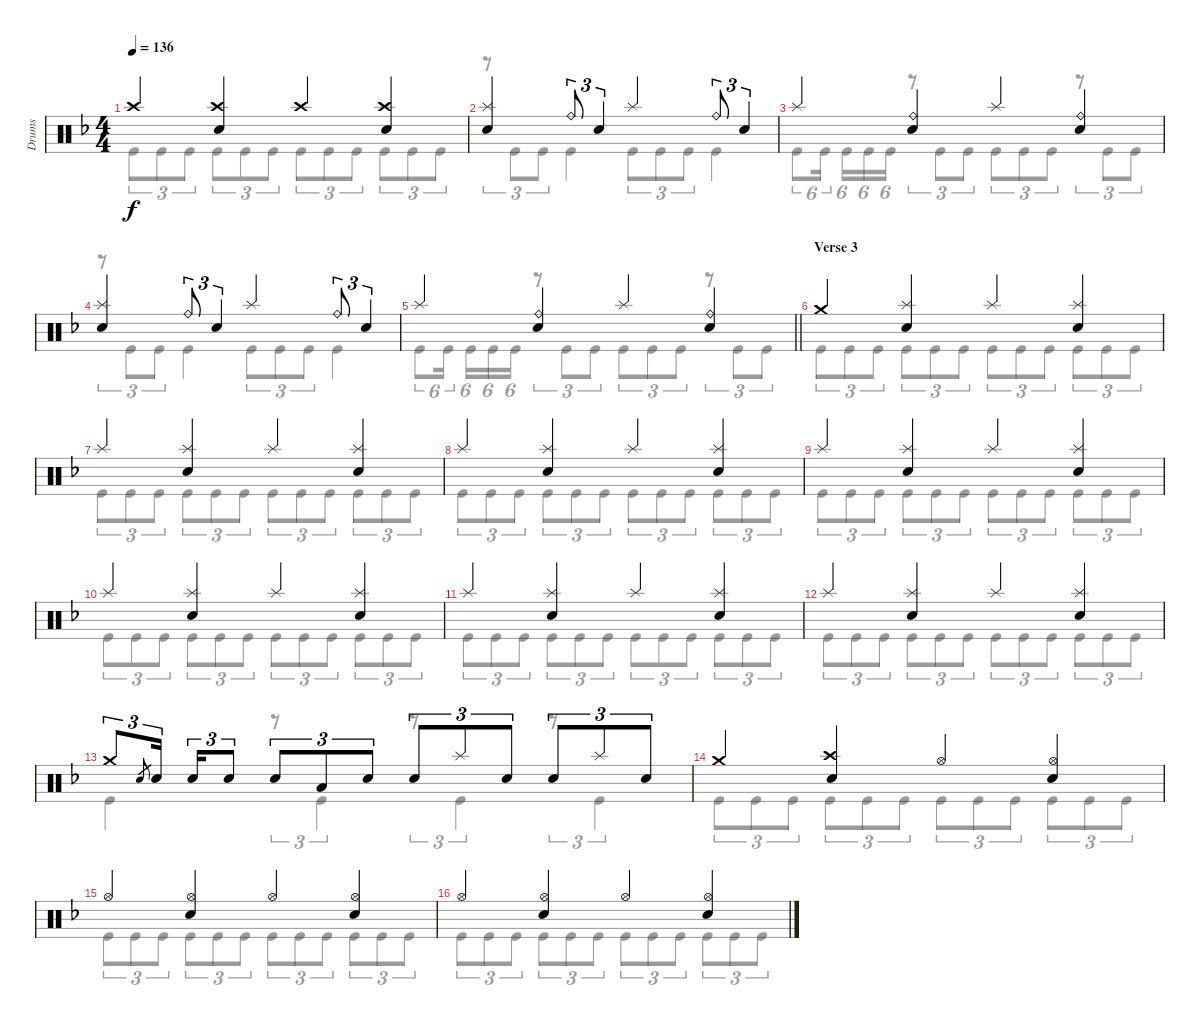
\track ("Drums" "Drums") {instrument percussion}
\staff {score}
\articulation defaults
\voice
\ts (4 4)
\tempo 136
\clef neutral
\ks dminor "Crash high (hit)".4{dy f}
("Crash high (hit)" "Electric Snare (hit)").4 "Crash high (hit)".4 ("Crash high (hit)" "Electric Snare (hit)").4 |
("Splash (hit)" "Electric Snare (hit)").4 "Ride (bell)".8{tu (3 2)} "Electric Snare (hit)".4{tu (3 2)} "Splash (hit)".4 "Ride (bell)".8{tu (3 2)} "Electric Snare (hit)".4{tu (3 2)} |
"Splash (hit)".4 ("Ride (bell)" "Electric Snare (hit)").4 "Splash (hit)".4 ("Ride (bell)" "Electric Snare (hit)").4 |
("Splash (hit)" "Electric Snare (hit)").4 "Ride (bell)".8{tu (3 2)} "Electric Snare (hit)".4{tu (3 2)} "Splash (hit)".4 "Ride (bell)".8{tu (3 2)} "Electric Snare (hit)".4{tu (3 2)} |
\barLineRight lightlight "Splash (hit)".4
("Ride (bell)" "Electric Snare (hit)").4 "Splash (hit)".4 ("Ride (bell)" "Electric Snare (hit)").4 |
\section ("" "Verse 3")
"Crash medium (hit)".4 ("Splash (hit)" "Electric Snare (hit)").4 "Splash (hit)".4 ("Splash (hit)" "Electric Snare (hit)").4 |
"Splash (hit)".4 ("Splash (hit)" "Electric Snare (hit)").4 "Splash (hit)".4 ("Splash (hit)" "Electric Snare (hit)").4 |
"Splash (hit)".4 ("Splash (hit)" "Electric Snare (hit)").4 "Splash (hit)".4 ("Splash (hit)" "Electric Snare (hit)").4 |
"Splash (hit)".4 ("Splash (hit)" "Electric Snare (hit)").4 "Splash (hit)".4 ("Splash (hit)" "Electric Snare (hit)").4 |
"Splash (hit)".4 ("Splash (hit)" "Electric Snare (hit)").4 "Splash (hit)".4 ("Splash (hit)" "Electric Snare (hit)").4 |
"Splash (hit)".4 ("Splash (hit)" "Electric Snare (hit)").4 "Splash (hit)".4 ("Splash (hit)" "Electric Snare (hit)").4 |
"Splash (hit)".4 ("Splash (hit)" "Electric Snare (hit)").4 "Splash (hit)".4 ("Splash (hit)" "Electric Snare (hit)").4 |
"Crash medium (hit)".8{tu (3 2)} "Electric Snare (hit)".8{gr} "Electric Snare (hit)".16{tu (3 2)} "Electric Snare (hit)".16{tu (3 2)} "Electric Snare (hit)".8{tu (3 2)} "Electric Snare (hit)".8{tu (3 2)} "Low Tom (hit)".8{tu (3 2)} "Electric Snare (hit)".8{tu (3 2)} "Electric Snare (hit)".8{tu (3 2)} "Splash (hit)".8{tu (3 2)} "Electric Snare (hit)".8{tu (3 2)} "Electric Snare (hit)".8{tu (3 2)} "Splash (hit)".8{tu (3 2)} "Electric Snare (hit)".8{tu (3 2)} |
"Crash medium (hit)".4 ("Crash high (hit)" "Electric Snare (hit)").4 "Hi-Hat (open)".4 ("Hi-Hat (open)" "Electric Snare (hit)").4 |
"Hi-Hat (open)".4 ("Hi-Hat (open)" "Electric Snare (hit)").4 "Hi-Hat (open)".4 ("Hi-Hat (open)" "Electric Snare (hit)").4 |
"Hi-Hat (open)".4 ("Hi-Hat (open)" "Electric Snare (hit)").4 "Hi-Hat (open)".4 ("Hi-Hat (open)" "Electric Snare (hit)").4
\voice
\clef neutral
\ottava regular
\simile none
\ks dminor "Kick (hit)".8{tu (3 2) dy f} "Kick (hit)".8{tu (3 2)} "Kick (hit)".8{tu (3 2)} "Kick (hit)".8{tu (3 2)} "Kick (hit)".8{tu (3 2)} "Kick (hit)".8{tu (3 2)} "Kick (hit)".8{tu (3 2)} "Kick (hit)".8{tu (3 2)} "Kick (hit)".8{tu (3 2)} "Kick (hit)".8{tu (3 2)} "Kick (hit)".8{tu (3 2)} "Kick (hit)".8{tu (3 2)}
|
r.8{tu (3 2)} "Kick (hit)".8{tu (3 2)} "Kick (hit)".8{tu (3 2)} "Kick (hit)".4 "Kick (hit)".8{tu (3 2)} "Kick (hit)".8{tu (3 2)} "Kick (hit)".8{tu (3 2)} "Kick (hit)".4 |
"Kick (hit)".8{tu (6 4)} "Kick (hit)".16{tu (6 4)} "Kick (hit)".16{tu (6 4)} "Kick (hit)".16{tu (6 4)} "Kick (hit)".16{tu (6 4)} r.8{tu (3 2)} "Kick (hit)".8{tu (3 2)} "Kick (hit)".8{tu (3 2)} "Kick (hit)".8{tu (3 2)} "Kick (hit)".8{tu (3 2)} "Kick (hit)".8{tu (3 2)} r.8{tu (3 2)} "Kick (hit)".8{tu (3 2)} "Kick (hit)".8{tu (3 2)} |
r.8{tu (3 2)} "Kick (hit)".8{tu (3 2)} "Kick (hit)".8{tu (3 2)} "Kick (hit)".4 "Kick (hit)".8{tu (3 2)} "Kick (hit)".8{tu (3 2)} "Kick (hit)".8{tu (3 2)} "Kick (hit)".4 |
\barLineRight lightlight "Kick (hit)".8{tu (6 4)} "Kick (hit)".16{tu (6 4)} "Kick (hit)".16{tu (6 4)} "Kick (hit)".16{tu (6 4)} "Kick (hit)".16{tu (6 4)}
r.8{tu (3 2)} "Kick (hit)".8{tu (3 2)} "Kick (hit)".8{tu (3 2)} "Kick (hit)".8{tu (3 2)} "Kick (hit)".8{tu (3 2)} "Kick (hit)".8{tu (3 2)} r.8{tu (3 2)} "Kick (hit)".8{tu (3 2)} "Kick (hit)".8{tu (3 2)} |
"Kick (hit)".8{tu (3 2)} "Kick (hit)".8{tu (3 2)} "Kick (hit)".8{tu (3 2)} "Kick (hit)".8{tu (3 2)} "Kick (hit)".8{tu (3 2)} "Kick (hit)".8{tu (3 2)} "Kick (hit)".8{tu (3 2)} "Kick (hit)".8{tu (3 2)} "Kick (hit)".8{tu (3 2)} "Kick (hit)".8{tu (3 2)} "Kick (hit)".8{tu (3 2)} "Kick (hit)".8{tu (3 2)} |
"Kick (hit)".8{tu (3 2)} "Kick (hit)".8{tu (3 2)} "Kick (hit)".8{tu (3 2)} "Kick (hit)".8{tu (3 2)} "Kick (hit)".8{tu (3 2)} "Kick (hit)".8{tu (3 2)} "Kick (hit)".8{tu (3 2)} "Kick (hit)".8{tu (3 2)} "Kick (hit)".8{tu (3 2)} "Kick (hit)".8{tu (3 2)} "Kick (hit)".8{tu (3 2)} "Kick (hit)".8{tu (3 2)} |
"Kick (hit)".8{tu (3 2)} "Kick (hit)".8{tu (3 2)} "Kick (hit)".8{tu (3 2)} "Kick (hit)".8{tu (3 2)} "Kick (hit)".8{tu (3 2)} "Kick (hit)".8{tu (3 2)} "Kick (hit)".8{tu (3 2)} "Kick (hit)".8{tu (3 2)} "Kick (hit)".8{tu (3 2)} "Kick (hit)".8{tu (3 2)} "Kick (hit)".8{tu (3 2)} "Kick (hit)".8{tu (3 2)} |
"Kick (hit)".8{tu (3 2)} "Kick (hit)".8{tu (3 2)} "Kick (hit)".8{tu (3 2)} "Kick (hit)".8{tu (3 2)} "Kick (hit)".8{tu (3 2)} "Kick (hit)".8{tu (3 2)} "Kick (hit)".8{tu (3 2)} "Kick (hit)".8{tu (3 2)} "Kick (hit)".8{tu (3 2)} "Kick (hit)".8{tu (3 2)} "Kick (hit)".8{tu (3 2)} "Kick (hit)".8{tu (3 2)} |
"Kick (hit)".8{tu (3 2)} "Kick (hit)".8{tu (3 2)} "Kick (hit)".8{tu (3 2)} "Kick (hit)".8{tu (3 2)} "Kick (hit)".8{tu (3 2)} "Kick (hit)".8{tu (3 2)} "Kick (hit)".8{tu (3 2)} "Kick (hit)".8{tu (3 2)} "Kick (hit)".8{tu (3 2)} "Kick (hit)".8{tu (3 2)} "Kick (hit)".8{tu (3 2)} "Kick (hit)".8{tu (3 2)} |
"Kick (hit)".8{tu (3 2)} "Kick (hit)".8{tu (3 2)} "Kick (hit)".8{tu (3 2)} "Kick (hit)".8{tu (3 2)} "Kick (hit)".8{tu (3 2)} "Kick (hit)".8{tu (3 2)} "Kick (hit)".8{tu (3 2)} "Kick (hit)".8{tu (3 2)} "Kick (hit)".8{tu (3 2)} "Kick (hit)".8{tu (3 2)} "Kick (hit)".8{tu (3 2)} "Kick (hit)".8{tu (3 2)} |
"Kick (hit)".8{tu (3 2)} "Kick (hit)".8{tu (3 2)} "Kick (hit)".8{tu (3 2)} "Kick (hit)".8{tu (3 2)} "Kick (hit)".8{tu (3 2)} "Kick (hit)".8{tu (3 2)} "Kick (hit)".8{tu (3 2)} "Kick (hit)".8{tu (3 2)} "Kick (hit)".8{tu (3 2)} "Kick (hit)".8{tu (3 2)} "Kick (hit)".8{tu (3 2)} "Kick (hit)".8{tu (3 2)} |
"Kick (hit)".4 r.8{tu (3 2)} "Kick (hit)".4{tu (3 2)} r.8{tu (3 2)} "Kick (hit)".4{tu (3 2)} r.8{tu (3 2)} "Kick (hit)".4{tu (3 2)} |
"Kick (hit)".8{tu (3 2)} "Kick (hit)".8{tu (3 2)} "Kick (hit)".8{tu (3 2)} "Kick (hit)".8{tu (3 2)} "Kick (hit)".8{tu (3 2)} "Kick (hit)".8{tu (3 2)} "Kick (hit)".8{tu (3 2)} "Kick (hit)".8{tu (3 2)} "Kick (hit)".8{tu (3 2)} "Kick (hit)".8{tu (3 2)} "Kick (hit)".8{tu (3 2)} "Kick (hit)".8{tu (3 2)} |
"Kick (hit)".8{tu (3 2)} "Kick (hit)".8{tu (3 2)} "Kick (hit)".8{tu (3 2)} "Kick (hit)".8{tu (3 2)} "Kick (hit)".8{tu (3 2)} "Kick (hit)".8{tu (3 2)} "Kick (hit)".8{tu (3 2)} "Kick (hit)".8{tu (3 2)} "Kick (hit)".8{tu (3 2)} "Kick (hit)".8{tu (3 2)} "Kick (hit)".8{tu (3 2)} "Kick (hit)".8{tu (3 2)} |
"Kick (hit)".8{tu (3 2)} "Kick (hit)".8{tu (3 2)} "Kick (hit)".8{tu (3 2)} "Kick (hit)".8{tu (3 2)} "Kick (hit)".8{tu (3 2)} "Kick (hit)".8{tu (3 2)} "Kick (hit)".8{tu (3 2)} "Kick (hit)".8{tu (3 2)} "Kick (hit)".8{tu (3 2)} "Kick (hit)".8{tu (3 2)} "Kick (hit)".8{tu (3 2)} "Kick (hit)".8{tu (3 2)}
